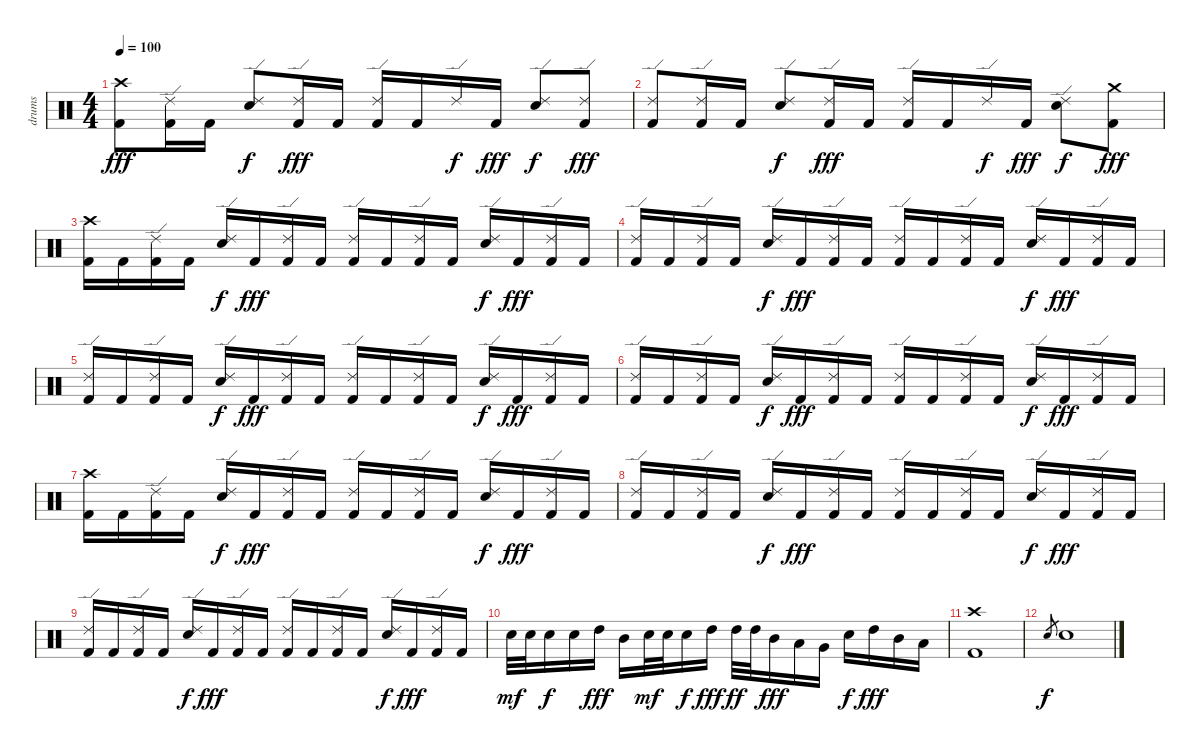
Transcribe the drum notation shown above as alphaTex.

\track ("drums" "drums") {instrument percussion}
\staff {score}
\articulation defaults
\ts (4 4)
\tempo 100
\clef neutral
\ks c
("Crash high (hit)" "Kick (hit) 2").8{dy fff} ("Ride (edge) 2" "Kick (hit) 2").16 "Kick (hit) 2".16 ("Ride (edge) 2" "Snare (hit) 2").8{dy f} ("Ride (edge) 2" "Kick (hit) 2").16{dy fff} "Kick (hit) 2".16 ("Ride (edge) 2" "Kick (hit) 2").16 "Kick (hit) 2".16 "Ride (edge) 2".16{dy f} "Kick (hit) 2".16{dy fff} ("Ride (edge) 2" "Snare (hit) 2").8{dy f} ("Ride (edge) 2" "Kick (hit) 2").8{dy fff} |
("Ride (edge) 2" "Kick (hit) 2").8 ("Ride (edge) 2" "Kick (hit) 2").16 "Kick (hit) 2".16 ("Ride (edge) 2" "Snare (hit) 2").8{dy f} ("Ride (edge) 2" "Kick (hit) 2").16{dy fff} "Kick (hit) 2".16 ("Ride (edge) 2" "Kick (hit) 2").16 "Kick (hit) 2".16 "Ride (edge) 2".16{dy f} "Kick (hit) 2".16{dy fff} ("Ride (edge) 2" "Snare (hit) 2").8{dy f} ("Crash medium (hit)" "Kick (hit) 2").8{dy fff} |
("Crash high (hit)" "Kick (hit) 2").16 "Kick (hit) 2".16 ("Ride (edge) 2" "Kick (hit) 2").16 "Kick (hit) 2".16 ("Ride (edge) 2" "Snare (hit) 2").16{dy f} "Kick (hit) 2".16{dy fff} ("Ride (edge) 2" "Kick (hit) 2").16 "Kick (hit) 2".16 ("Ride (edge) 2" "Kick (hit) 2").16 "Kick (hit) 2".16 ("Ride (edge) 2" "Kick (hit) 2").16 "Kick (hit) 2".16 ("Ride (edge) 2" "Snare (hit) 2").16{dy f} "Kick (hit) 2".16{dy fff} ("Ride (edge) 2" "Kick (hit) 2").16 "Kick (hit) 2".16 |
("Ride (edge) 2" "Kick (hit) 2").16 "Kick (hit) 2".16 ("Ride (edge) 2" "Kick (hit) 2").16 "Kick (hit) 2".16 ("Ride (edge) 2" "Snare (hit) 2").16{dy f} "Kick (hit) 2".16{dy fff} ("Ride (edge) 2" "Kick (hit) 2").16 "Kick (hit) 2".16 ("Ride (edge) 2" "Kick (hit) 2").16 "Kick (hit) 2".16 ("Ride (edge) 2" "Kick (hit) 2").16 "Kick (hit) 2".16 ("Ride (edge) 2" "Snare (hit) 2").16{dy f} "Kick (hit) 2".16{dy fff} ("Ride (edge) 2" "Kick (hit) 2").16 "Kick (hit) 2".16 |
("Ride (edge) 2" "Kick (hit) 2").16 "Kick (hit) 2".16 ("Ride (edge) 2" "Kick (hit) 2").16 "Kick (hit) 2".16 ("Ride (edge) 2" "Snare (hit) 2").16{dy f} "Kick (hit) 2".16{dy fff} ("Ride (edge) 2" "Kick (hit) 2").16 "Kick (hit) 2".16 ("Ride (edge) 2" "Kick (hit) 2").16 "Kick (hit) 2".16 ("Ride (edge) 2" "Kick (hit) 2").16 "Kick (hit) 2".16 ("Ride (edge) 2" "Snare (hit) 2").16{dy f} "Kick (hit) 2".16{dy fff} ("Ride (edge) 2" "Kick (hit) 2").16 "Kick (hit) 2".16 |
("Ride (edge) 2" "Kick (hit) 2").16 "Kick (hit) 2".16 ("Ride (edge) 2" "Kick (hit) 2").16 "Kick (hit) 2".16 ("Ride (edge) 2" "Snare (hit) 2").16{dy f} "Kick (hit) 2".16{dy fff} ("Ride (edge) 2" "Kick (hit) 2").16 "Kick (hit) 2".16 ("Ride (edge) 2" "Kick (hit) 2").16 "Kick (hit) 2".16 ("Ride (edge) 2" "Kick (hit) 2").16 "Kick (hit) 2".16 ("Ride (edge) 2" "Snare (hit) 2").16{dy f} "Kick (hit) 2".16{dy fff} ("Ride (edge) 2" "Kick (hit) 2").16 "Kick (hit) 2".16 |
("Crash high (hit)" "Kick (hit) 2").16 "Kick (hit) 2".16 ("Ride (edge) 2" "Kick (hit) 2").16 "Kick (hit) 2".16 ("Ride (edge) 2" "Snare (hit) 2").16{dy f} "Kick (hit) 2".16{dy fff} ("Ride (edge) 2" "Kick (hit) 2").16 "Kick (hit) 2".16 ("Ride (edge) 2" "Kick (hit) 2").16 "Kick (hit) 2".16 ("Ride (edge) 2" "Kick (hit) 2").16 "Kick (hit) 2".16 ("Ride (edge) 2" "Snare (hit) 2").16{dy f} "Kick (hit) 2".16{dy fff} ("Ride (edge) 2" "Kick (hit) 2").16 "Kick (hit) 2".16 |
("Ride (edge) 2" "Kick (hit) 2").16 "Kick (hit) 2".16 ("Ride (edge) 2" "Kick (hit) 2").16 "Kick (hit) 2".16 ("Ride (edge) 2" "Snare (hit) 2").16{dy f} "Kick (hit) 2".16{dy fff} ("Ride (edge) 2" "Kick (hit) 2").16 "Kick (hit) 2".16 ("Ride (edge) 2" "Kick (hit) 2").16 "Kick (hit) 2".16 ("Ride (edge) 2" "Kick (hit) 2").16 "Kick (hit) 2".16 ("Ride (edge) 2" "Snare (hit) 2").16{dy f} "Kick (hit) 2".16{dy fff} ("Ride (edge) 2" "Kick (hit) 2").16 "Kick (hit) 2".16 |
("Ride (edge) 2" "Kick (hit) 2").16 "Kick (hit) 2".16 ("Ride (edge) 2" "Kick (hit) 2").16 "Kick (hit) 2".16 ("Ride (edge) 2" "Snare (hit) 2").16{dy f} "Kick (hit) 2".16{dy fff} ("Ride (edge) 2" "Kick (hit) 2").16 "Kick (hit) 2".16 ("Ride (edge) 2" "Kick (hit) 2").16 "Kick (hit) 2".16 ("Ride (edge) 2" "Kick (hit) 2").16 "Kick (hit) 2".16 ("Ride (edge) 2" "Snare (hit) 2").16{dy f} "Kick (hit) 2".16{dy fff} ("Ride (edge) 2" "Kick (hit) 2").16 "Kick (hit) 2".16 |
"Snare (hit) 2".32{dy mf} "Snare (hit) 2".32 "Snare (hit) 2".16{dy f} "Snare (hit) 2".16 "High Tom (hit)".16{dy fff} "Mid Tom (hit)".16 "Snare (hit) 2".32{dy mf} "Snare (hit) 2".32 "Snare (hit) 2".16{dy f} "High Tom (hit)".16{dy fff} "High Tom (hit)".32{dy ff} "High Tom (hit)".32 "Mid Tom (hit)".16{dy fff} "Low Tom (hit)".16 "Very Low Tom (hit)".16 "Snare (hit) 2".16{dy f} "High Tom (hit)".16{dy fff} "Mid Tom (hit)".16 "Low Tom (hit)".16 |
("Crash high (hit)" "Kick (hit) 2").1 |
"Snare (hit) 2".8{gr dy f} "Snare (hit) 2".1
